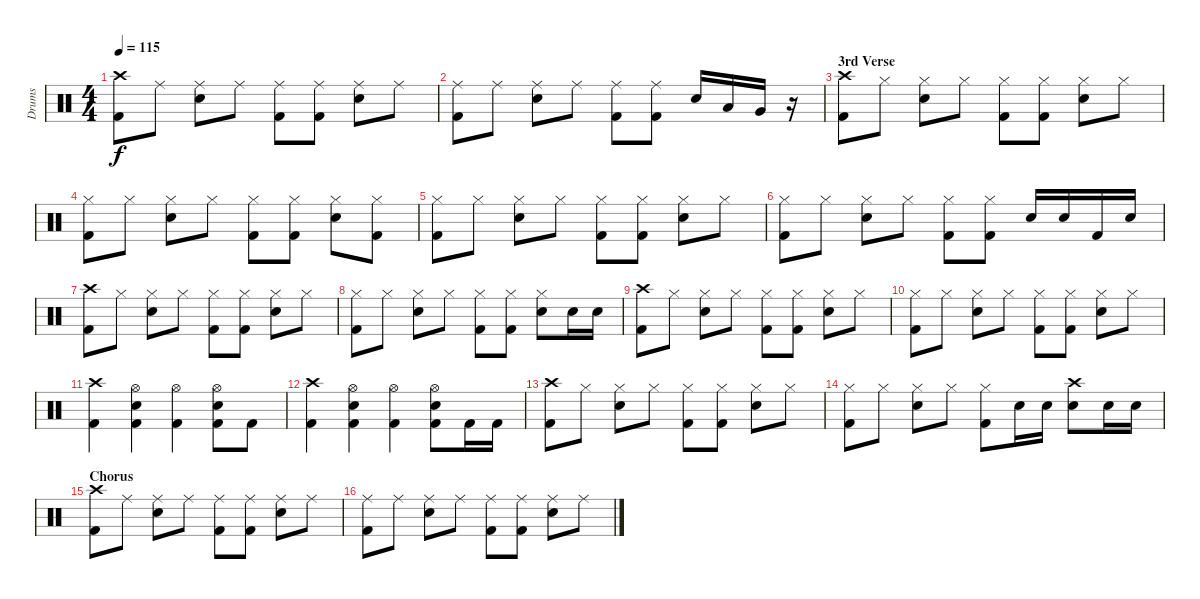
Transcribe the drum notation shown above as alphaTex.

\track ("Drums" "Drums") {instrument percussion}
\staff {score}
\articulation defaults
\ts (4 4)
\tempo 115
\clef neutral
\ks c
("Crash high (hit)" "Kick (hit) 2").8{dy f} "Ride (middle)".8 ("Ride (middle)" "Electric Snare (hit)").8 "Ride (middle)".8 ("Ride (middle)" "Kick (hit) 2").8 ("Ride (middle)" "Kick (hit) 2").8 ("Ride (middle)" "Electric Snare (hit)").8 "Ride (middle)".8 |
("Ride (middle)" "Kick (hit) 2").8 "Ride (middle)".8 ("Ride (middle)" "Electric Snare (hit)").8 "Ride (middle)".8 ("Ride (middle)" "Kick (hit) 2").8 ("Ride (middle)" "Kick (hit) 2").8 "Electric Snare (hit)".16 "Low Tom (hit)".16 "Very Low Tom (hit)".16 r.16 |
\section ("" "3rd Verse")
("Crash high (hit)" "Kick (hit) 2").8 "Hi-Hat (closed)".8 ("Hi-Hat (closed)" "Electric Snare (hit)").8 "Hi-Hat (closed)".8 ("Hi-Hat (closed)" "Kick (hit) 2").8 ("Hi-Hat (closed)" "Kick (hit) 2").8 ("Hi-Hat (closed)" "Electric Snare (hit)").8 "Hi-Hat (closed)".8 |
("Hi-Hat (closed)" "Kick (hit) 2").8 "Hi-Hat (closed)".8 ("Hi-Hat (closed)" "Electric Snare (hit)").8 "Hi-Hat (closed)".8 ("Hi-Hat (closed)" "Kick (hit) 2").8 ("Hi-Hat (closed)" "Kick (hit) 2").8 ("Hi-Hat (closed)" "Electric Snare (hit)").8 ("Hi-Hat (closed)" "Kick (hit) 2").8 |
("Hi-Hat (closed)" "Kick (hit) 2").8 "Hi-Hat (closed)".8 ("Hi-Hat (closed)" "Electric Snare (hit)").8 "Hi-Hat (closed)".8 ("Hi-Hat (closed)" "Kick (hit) 2").8 ("Hi-Hat (closed)" "Kick (hit) 2").8 ("Hi-Hat (closed)" "Electric Snare (hit)").8 "Hi-Hat (closed)".8 |
("Hi-Hat (closed)" "Kick (hit) 2").8 "Hi-Hat (closed)".8 ("Hi-Hat (closed)" "Electric Snare (hit)").8 "Hi-Hat (closed)".8 ("Hi-Hat (closed)" "Kick (hit) 2").8 ("Hi-Hat (closed)" "Kick (hit) 2").8 "Electric Snare (hit)".16 "Electric Snare (hit)".16 "Kick (hit) 2".16 "Electric Snare (hit)".16 |
("Crash high (hit)" "Kick (hit) 2").8 "Hi-Hat (closed)".8 ("Hi-Hat (closed)" "Electric Snare (hit)").8 "Hi-Hat (closed)".8 ("Hi-Hat (closed)" "Kick (hit) 2").8 ("Hi-Hat (closed)" "Kick (hit) 2").8 ("Hi-Hat (closed)" "Electric Snare (hit)").8 "Hi-Hat (closed)".8 |
("Hi-Hat (closed)" "Kick (hit) 2").8 "Hi-Hat (closed)".8 ("Hi-Hat (closed)" "Electric Snare (hit)").8 "Hi-Hat (closed)".8 ("Hi-Hat (closed)" "Kick (hit) 2").8 ("Hi-Hat (closed)" "Kick (hit) 2").8 ("Hi-Hat (closed)" "Electric Snare (hit)").8 "Electric Snare (hit)".16 "Electric Snare (hit)".16 |
("Crash high (hit)" "Kick (hit) 2").8 "Hi-Hat (closed)".8 ("Hi-Hat (closed)" "Electric Snare (hit)").8 "Hi-Hat (closed)".8 ("Hi-Hat (closed)" "Kick (hit) 2").8 ("Hi-Hat (closed)" "Kick (hit) 2").8 ("Hi-Hat (closed)" "Electric Snare (hit)").8 "Hi-Hat (closed)".8 |
("Hi-Hat (closed)" "Kick (hit) 2").8 "Hi-Hat (closed)".8 ("Hi-Hat (closed)" "Electric Snare (hit)").8 "Hi-Hat (closed)".8 ("Hi-Hat (closed)" "Kick (hit) 2").8 ("Hi-Hat (closed)" "Kick (hit) 2").8 ("Hi-Hat (closed)" "Electric Snare (hit)").8 "Hi-Hat (closed)".8 |
("Crash high (hit)" "Kick (hit) 2").4 ("Hi-Hat (open)" "Electric Snare (hit)" "Kick (hit) 2").4 ("Hi-Hat (open)" "Kick (hit) 2").4 ("Hi-Hat (open)" "Electric Snare (hit)" "Kick (hit) 2").8 "Kick (hit) 2".8 |
("Crash high (hit)" "Kick (hit) 2").4 ("Hi-Hat (open)" "Electric Snare (hit)" "Kick (hit) 2").4 ("Hi-Hat (open)" "Kick (hit) 2").4 ("Hi-Hat (open)" "Electric Snare (hit)" "Kick (hit) 2").8 "Kick (hit) 2".16 "Kick (hit) 2".16 |
("Crash high (hit)" "Kick (hit) 2").8 "Hi-Hat (closed)".8 ("Hi-Hat (closed)" "Electric Snare (hit)").8 "Hi-Hat (closed)".8 ("Hi-Hat (closed)" "Kick (hit) 2").8 ("Hi-Hat (closed)" "Kick (hit) 2").8 ("Hi-Hat (closed)" "Electric Snare (hit)").8 "Hi-Hat (closed)".8 |
("Hi-Hat (closed)" "Kick (hit) 2").8 "Hi-Hat (closed)".8 ("Hi-Hat (closed)" "Electric Snare (hit)").8 "Hi-Hat (closed)".8 ("Hi-Hat (closed)" "Kick (hit) 2").8 "Electric Snare (hit)".16 "Electric Snare (hit)".16 ("Crash high (hit)" "Electric Snare (hit)").8 "Electric Snare (hit)".16 "Electric Snare (hit)".16 |
\section ("" "Chorus")
("Crash high (hit)" "Kick (hit) 2").8 "Ride (middle)".8 ("Ride (middle)" "Electric Snare (hit)").8 "Ride (middle)".8 ("Ride (middle)" "Kick (hit) 2").8 ("Ride (middle)" "Kick (hit) 2").8 ("Ride (middle)" "Electric Snare (hit)").8 "Ride (middle)".8 |
("Ride (middle)" "Kick (hit) 2").8 "Ride (middle)".8 ("Ride (middle)" "Electric Snare (hit)").8 "Ride (middle)".8 ("Ride (middle)" "Kick (hit) 2").8 ("Ride (middle)" "Kick (hit) 2").8 ("Ride (middle)" "Electric Snare (hit)").8 "Ride (middle)".8
